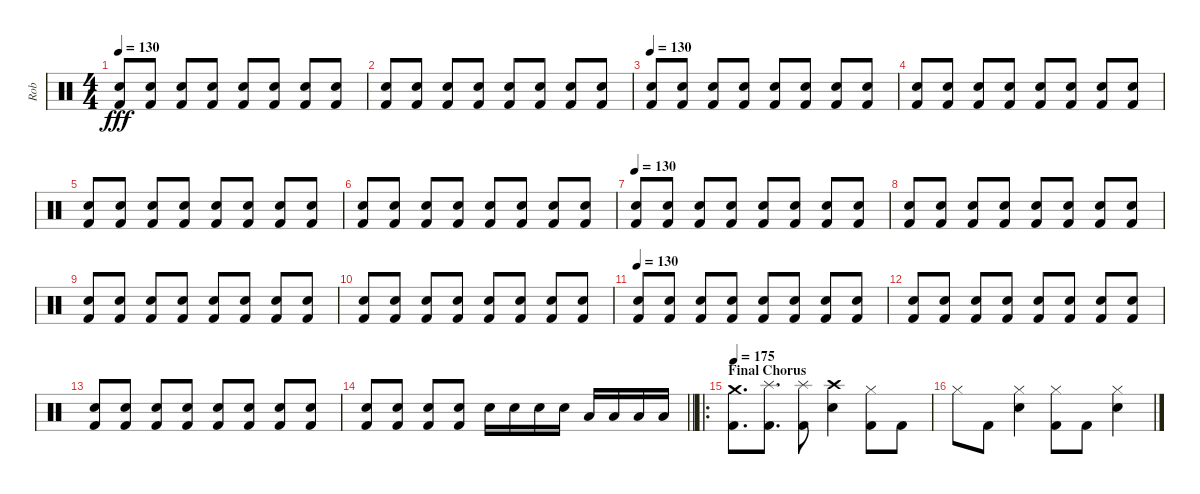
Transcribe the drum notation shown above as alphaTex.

\track ("Rob" "Rob") {instrument percussion}
\staff {score}
\articulation defaults
\ts (4 4)
\tempo 130
\clef neutral
\ks c
("Electric Snare (hit)" "Kick (hit) 2").8{dy fff} ("Electric Snare (hit)" "Kick (hit) 2").8 ("Electric Snare (hit)" "Kick (hit) 2").8 ("Electric Snare (hit)" "Kick (hit) 2").8 ("Electric Snare (hit)" "Kick (hit) 2").8 ("Electric Snare (hit)" "Kick (hit) 2").8 ("Electric Snare (hit)" "Kick (hit) 2").8 ("Electric Snare (hit)" "Kick (hit) 2").8 |
("Electric Snare (hit)" "Kick (hit) 2").8 ("Electric Snare (hit)" "Kick (hit) 2").8 ("Electric Snare (hit)" "Kick (hit) 2").8 ("Electric Snare (hit)" "Kick (hit) 2").8 ("Electric Snare (hit)" "Kick (hit) 2").8 ("Electric Snare (hit)" "Kick (hit) 2").8 ("Electric Snare (hit)" "Kick (hit) 2").8 ("Electric Snare (hit)" "Kick (hit) 2").8 |
\tempo 130
("Electric Snare (hit)" "Kick (hit) 2").8{volume 9} ("Electric Snare (hit)" "Kick (hit) 2").8 ("Electric Snare (hit)" "Kick (hit) 2").8 ("Electric Snare (hit)" "Kick (hit) 2").8 ("Electric Snare (hit)" "Kick (hit) 2").8 ("Electric Snare (hit)" "Kick (hit) 2").8 ("Electric Snare (hit)" "Kick (hit) 2").8 ("Electric Snare (hit)" "Kick (hit) 2").8 |
("Electric Snare (hit)" "Kick (hit) 2").8 ("Electric Snare (hit)" "Kick (hit) 2").8 ("Electric Snare (hit)" "Kick (hit) 2").8 ("Electric Snare (hit)" "Kick (hit) 2").8 ("Electric Snare (hit)" "Kick (hit) 2").8 ("Electric Snare (hit)" "Kick (hit) 2").8 ("Electric Snare (hit)" "Kick (hit) 2").8 ("Electric Snare (hit)" "Kick (hit) 2").8 |
("Electric Snare (hit)" "Kick (hit) 2").8 ("Electric Snare (hit)" "Kick (hit) 2").8 ("Electric Snare (hit)" "Kick (hit) 2").8 ("Electric Snare (hit)" "Kick (hit) 2").8 ("Electric Snare (hit)" "Kick (hit) 2").8 ("Electric Snare (hit)" "Kick (hit) 2").8 ("Electric Snare (hit)" "Kick (hit) 2").8 ("Electric Snare (hit)" "Kick (hit) 2").8 |
("Electric Snare (hit)" "Kick (hit) 2").8 ("Electric Snare (hit)" "Kick (hit) 2").8 ("Electric Snare (hit)" "Kick (hit) 2").8 ("Electric Snare (hit)" "Kick (hit) 2").8 ("Electric Snare (hit)" "Kick (hit) 2").8 ("Electric Snare (hit)" "Kick (hit) 2").8 ("Electric Snare (hit)" "Kick (hit) 2").8 ("Electric Snare (hit)" "Kick (hit) 2").8 |
\tempo 130
("Electric Snare (hit)" "Kick (hit) 2").8{volume 9} ("Electric Snare (hit)" "Kick (hit) 2").8 ("Electric Snare (hit)" "Kick (hit) 2").8 ("Electric Snare (hit)" "Kick (hit) 2").8 ("Electric Snare (hit)" "Kick (hit) 2").8 ("Electric Snare (hit)" "Kick (hit) 2").8 ("Electric Snare (hit)" "Kick (hit) 2").8 ("Electric Snare (hit)" "Kick (hit) 2").8 |
("Electric Snare (hit)" "Kick (hit) 2").8 ("Electric Snare (hit)" "Kick (hit) 2").8 ("Electric Snare (hit)" "Kick (hit) 2").8 ("Electric Snare (hit)" "Kick (hit) 2").8 ("Electric Snare (hit)" "Kick (hit) 2").8 ("Electric Snare (hit)" "Kick (hit) 2").8 ("Electric Snare (hit)" "Kick (hit) 2").8 ("Electric Snare (hit)" "Kick (hit) 2").8 |
("Electric Snare (hit)" "Kick (hit) 2").8 ("Electric Snare (hit)" "Kick (hit) 2").8 ("Electric Snare (hit)" "Kick (hit) 2").8 ("Electric Snare (hit)" "Kick (hit) 2").8 ("Electric Snare (hit)" "Kick (hit) 2").8 ("Electric Snare (hit)" "Kick (hit) 2").8 ("Electric Snare (hit)" "Kick (hit) 2").8 ("Electric Snare (hit)" "Kick (hit) 2").8 |
("Electric Snare (hit)" "Kick (hit) 2").8 ("Electric Snare (hit)" "Kick (hit) 2").8 ("Electric Snare (hit)" "Kick (hit) 2").8 ("Electric Snare (hit)" "Kick (hit) 2").8 ("Electric Snare (hit)" "Kick (hit) 2").8 ("Electric Snare (hit)" "Kick (hit) 2").8 ("Electric Snare (hit)" "Kick (hit) 2").8 ("Electric Snare (hit)" "Kick (hit) 2").8 |
\tempo 130
("Electric Snare (hit)" "Kick (hit) 2").8{volume 9} ("Electric Snare (hit)" "Kick (hit) 2").8 ("Electric Snare (hit)" "Kick (hit) 2").8 ("Electric Snare (hit)" "Kick (hit) 2").8 ("Electric Snare (hit)" "Kick (hit) 2").8 ("Electric Snare (hit)" "Kick (hit) 2").8 ("Electric Snare (hit)" "Kick (hit) 2").8 ("Electric Snare (hit)" "Kick (hit) 2").8 |
("Electric Snare (hit)" "Kick (hit) 2").8 ("Electric Snare (hit)" "Kick (hit) 2").8 ("Electric Snare (hit)" "Kick (hit) 2").8 ("Electric Snare (hit)" "Kick (hit) 2").8 ("Electric Snare (hit)" "Kick (hit) 2").8 ("Electric Snare (hit)" "Kick (hit) 2").8 ("Electric Snare (hit)" "Kick (hit) 2").8 ("Electric Snare (hit)" "Kick (hit) 2").8 |
("Electric Snare (hit)" "Kick (hit) 2").8 ("Electric Snare (hit)" "Kick (hit) 2").8 ("Electric Snare (hit)" "Kick (hit) 2").8 ("Electric Snare (hit)" "Kick (hit) 2").8 ("Electric Snare (hit)" "Kick (hit) 2").8 ("Electric Snare (hit)" "Kick (hit) 2").8 ("Electric Snare (hit)" "Kick (hit) 2").8 ("Electric Snare (hit)" "Kick (hit) 2").8 |
\barLineRight lightlight
("Electric Snare (hit)" "Kick (hit) 2").8 ("Electric Snare (hit)" "Kick (hit) 2").8 ("Electric Snare (hit)" "Kick (hit) 2").8 ("Electric Snare (hit)" "Kick (hit) 2").8 "Electric Snare (hit)".16 "Electric Snare (hit)".16 "Electric Snare (hit)".16 "Electric Snare (hit)".16 "Low Tom (hit)".16 "Low Tom (hit)".16 "Low Tom (hit)".16 "Low Tom (hit)".16 |
\ro
\section ("" "Final Chorus")
\tempo 175
("Crash medium (hit)" "Kick (hit) 2").8{d} ("Splash (hit)" "Kick (hit) 2").8{d} ("Splash (hit)" "Kick (hit) 2").8 ("Crash high (hit)" "Electric Snare (hit)").4 ("Hi-Hat (closed)" "Kick (hit) 2").8 "Kick (hit) 2".8 |
"Hi-Hat (closed)".8 "Kick (hit) 2".8 ("Hi-Hat (closed)" "Electric Snare (hit)").4 ("Hi-Hat (closed)" "Kick (hit) 2").8 "Kick (hit) 2".8 ("Hi-Hat (closed)" "Electric Snare (hit)").4
